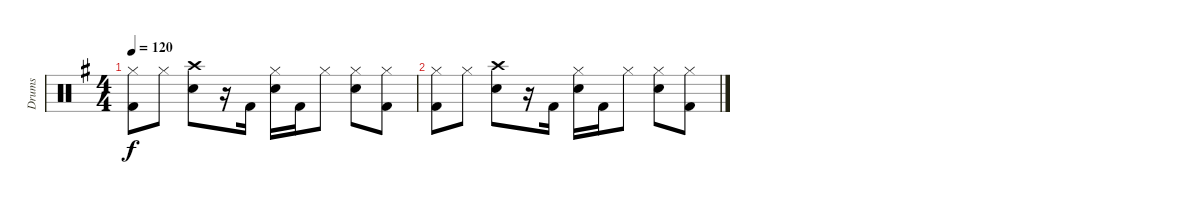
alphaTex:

\track ("Drums" "Drums") {instrument percussion}
\staff {score}
\articulation defaults
\ts (4 4)
\tempo 120
\clef neutral
\ks g
("Hi-Hat (closed)" "Kick (hit) 2").8{dy f} "Hi-Hat (closed)".8 ("Crash high (hit)" "Electric Snare (hit)").8 r.16 "Kick (hit) 2".16 ("Hi-Hat (closed)" "Electric Snare (hit)").16 "Kick (hit) 2".16 "Hi-Hat (closed)".8 ("Hi-Hat (closed)" "Electric Snare (hit)").8 ("Hi-Hat (closed)" "Kick (hit) 2").8 |
("Hi-Hat (closed)" "Kick (hit) 2").8 "Hi-Hat (closed)".8 ("Crash high (hit)" "Electric Snare (hit)").8 r.16 "Kick (hit) 2".16 ("Hi-Hat (closed)" "Electric Snare (hit)").16 "Kick (hit) 2".16 "Hi-Hat (closed)".8 ("Hi-Hat (closed)" "Electric Snare (hit)").8 ("Hi-Hat (closed)" "Kick (hit) 2").8
